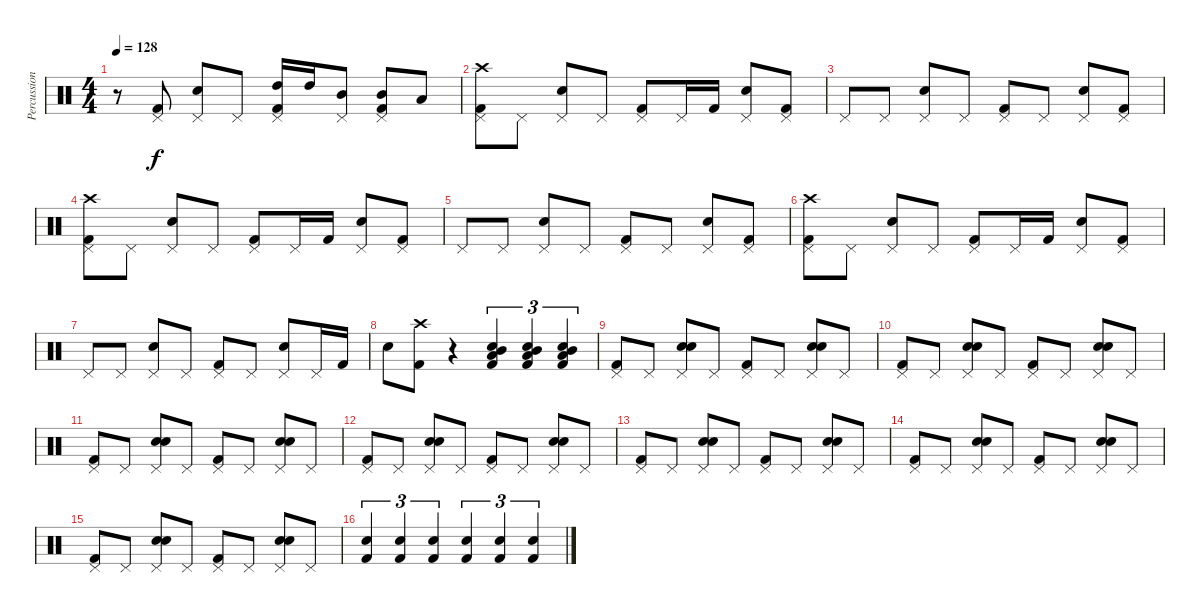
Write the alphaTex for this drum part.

\track ("Percussions" "Percussion") {instrument percussion}
\staff {score}
\articulation defaults
\ts (4 4)
\tempo 128
\clef neutral
\ks c
r.8{dy f} ("Pedal Hi-Hat (hit)" "Kick (hit) 2").8 ("Pedal Hi-Hat (hit)" "Snare (hit) 2").8 "Pedal Hi-Hat (hit)".8 ("Pedal Hi-Hat (hit)" "High Tom (hit)" "Kick (hit) 2").16 "High Tom (hit)".16 ("Pedal Hi-Hat (hit)" "Mid Tom (hit)").8 ("Pedal Hi-Hat (hit)" "Mid Tom (hit)" "Kick (hit) 2").8 "Low Tom (hit)".8 |
("Crash high (hit)" "Pedal Hi-Hat (hit)" "Kick (hit) 2").8 "Pedal Hi-Hat (hit)".8 ("Pedal Hi-Hat (hit)" "Snare (hit) 2").8 "Pedal Hi-Hat (hit)".8 ("Pedal Hi-Hat (hit)" "Kick (hit) 2").8 "Pedal Hi-Hat (hit)".16 "Kick (hit) 2".16 ("Pedal Hi-Hat (hit)" "Snare (hit) 2").8 ("Pedal Hi-Hat (hit)" "Kick (hit) 2").8 |
"Pedal Hi-Hat (hit)".8 "Pedal Hi-Hat (hit)".8 ("Pedal Hi-Hat (hit)" "Snare (hit) 2").8 "Pedal Hi-Hat (hit)".8 ("Pedal Hi-Hat (hit)" "Kick (hit) 2").8 "Pedal Hi-Hat (hit)".8 ("Pedal Hi-Hat (hit)" "Snare (hit) 2").8 ("Pedal Hi-Hat (hit)" "Kick (hit) 2").8 |
("Crash high (hit)" "Pedal Hi-Hat (hit)" "Kick (hit) 2").8 "Pedal Hi-Hat (hit)".8 ("Pedal Hi-Hat (hit)" "Snare (hit) 2").8 "Pedal Hi-Hat (hit)".8 ("Pedal Hi-Hat (hit)" "Kick (hit) 2").8 "Pedal Hi-Hat (hit)".16 "Kick (hit) 2".16 ("Pedal Hi-Hat (hit)" "Snare (hit) 2").8 ("Pedal Hi-Hat (hit)" "Kick (hit) 2").8 |
"Pedal Hi-Hat (hit)".8 "Pedal Hi-Hat (hit)".8 ("Pedal Hi-Hat (hit)" "Snare (hit) 2").8 "Pedal Hi-Hat (hit)".8 ("Pedal Hi-Hat (hit)" "Kick (hit) 2").8 "Pedal Hi-Hat (hit)".8 ("Pedal Hi-Hat (hit)" "Snare (hit) 2").8 ("Pedal Hi-Hat (hit)" "Kick (hit) 2").8 |
("Crash high (hit)" "Pedal Hi-Hat (hit)" "Kick (hit) 2").8 "Pedal Hi-Hat (hit)".8 ("Pedal Hi-Hat (hit)" "Snare (hit) 2").8 "Pedal Hi-Hat (hit)".8 ("Pedal Hi-Hat (hit)" "Kick (hit) 2").8 "Pedal Hi-Hat (hit)".16 "Kick (hit) 2".16 ("Pedal Hi-Hat (hit)" "Snare (hit) 2").8 ("Pedal Hi-Hat (hit)" "Kick (hit) 2").8 |
"Pedal Hi-Hat (hit)".8 "Pedal Hi-Hat (hit)".8 ("Pedal Hi-Hat (hit)" "Snare (hit) 2").8 "Pedal Hi-Hat (hit)".8 ("Pedal Hi-Hat (hit)" "Kick (hit) 2").8 "Pedal Hi-Hat (hit)".8 ("Pedal Hi-Hat (hit)" "Snare (hit) 2").8 "Pedal Hi-Hat (hit)".16 "Kick (hit) 2".16 |
"Snare (hit) 2".8 ("Crash high (hit)" "Kick (hit) 2").8 r.4 ("Mid Tom (hit)" "Low Tom (hit)" "Snare (hit) 2" "Kick (hit) 2").4{tu (3 2)} ("Mid Tom (hit)" "Low Tom (hit)" "Snare (hit) 2" "Kick (hit) 2").4{tu (3 2)} ("Mid Tom (hit)" "Low Tom (hit)" "Snare (hit) 2" "Kick (hit) 2").4{tu (3 2)} |
("Pedal Hi-Hat (hit)" "Kick (hit) 2").8 "Pedal Hi-Hat (hit)".8 ("Pedal Hi-Hat (hit)" "Snare (hit) 2" "Hand Clap (hit)").8 "Pedal Hi-Hat (hit)".8 ("Pedal Hi-Hat (hit)" "Kick (hit) 2").8 "Pedal Hi-Hat (hit)".8 ("Pedal Hi-Hat (hit)" "Snare (hit) 2" "Hand Clap (hit)").8 "Pedal Hi-Hat (hit)".8 |
("Pedal Hi-Hat (hit)" "Kick (hit) 2").8 "Pedal Hi-Hat (hit)".8 ("Pedal Hi-Hat (hit)" "Snare (hit) 2" "Hand Clap (hit)").8 "Pedal Hi-Hat (hit)".8 ("Pedal Hi-Hat (hit)" "Kick (hit) 2").8 "Pedal Hi-Hat (hit)".8 ("Pedal Hi-Hat (hit)" "Snare (hit) 2" "Hand Clap (hit)").8 "Pedal Hi-Hat (hit)".8 |
("Pedal Hi-Hat (hit)" "Kick (hit) 2").8 "Pedal Hi-Hat (hit)".8 ("Pedal Hi-Hat (hit)" "Snare (hit) 2" "Hand Clap (hit)").8 "Pedal Hi-Hat (hit)".8 ("Pedal Hi-Hat (hit)" "Kick (hit) 2").8 "Pedal Hi-Hat (hit)".8 ("Pedal Hi-Hat (hit)" "Snare (hit) 2" "Hand Clap (hit)").8 "Pedal Hi-Hat (hit)".8 |
("Pedal Hi-Hat (hit)" "Kick (hit) 2").8 "Pedal Hi-Hat (hit)".8 ("Pedal Hi-Hat (hit)" "Snare (hit) 2" "Hand Clap (hit)").8 "Pedal Hi-Hat (hit)".8 ("Pedal Hi-Hat (hit)" "Kick (hit) 2").8 "Pedal Hi-Hat (hit)".8 ("Pedal Hi-Hat (hit)" "Snare (hit) 2" "Hand Clap (hit)").8 "Pedal Hi-Hat (hit)".8 |
("Pedal Hi-Hat (hit)" "Kick (hit) 2").8 "Pedal Hi-Hat (hit)".8 ("Pedal Hi-Hat (hit)" "Snare (hit) 2" "Hand Clap (hit)").8 "Pedal Hi-Hat (hit)".8 ("Pedal Hi-Hat (hit)" "Kick (hit) 2").8 "Pedal Hi-Hat (hit)".8 ("Pedal Hi-Hat (hit)" "Snare (hit) 2" "Hand Clap (hit)").8 "Pedal Hi-Hat (hit)".8 |
("Pedal Hi-Hat (hit)" "Kick (hit) 2").8 "Pedal Hi-Hat (hit)".8 ("Pedal Hi-Hat (hit)" "Snare (hit) 2" "Hand Clap (hit)").8 "Pedal Hi-Hat (hit)".8 ("Pedal Hi-Hat (hit)" "Kick (hit) 2").8 "Pedal Hi-Hat (hit)".8 ("Pedal Hi-Hat (hit)" "Snare (hit) 2" "Hand Clap (hit)").8 "Pedal Hi-Hat (hit)".8 |
("Pedal Hi-Hat (hit)" "Kick (hit) 2").8 "Pedal Hi-Hat (hit)".8 ("Pedal Hi-Hat (hit)" "Snare (hit) 2" "Hand Clap (hit)").8 "Pedal Hi-Hat (hit)".8 ("Pedal Hi-Hat (hit)" "Kick (hit) 2").8 "Pedal Hi-Hat (hit)".8 ("Pedal Hi-Hat (hit)" "Snare (hit) 2" "Hand Clap (hit)").8 "Pedal Hi-Hat (hit)".8 |
("Snare (hit) 2" "Kick (hit) 2").4{tu (3 2)} ("Snare (hit) 2" "Kick (hit) 2").4{tu (3 2)} ("Snare (hit) 2" "Kick (hit) 2").4{tu (3 2)} ("Snare (hit) 2" "Kick (hit) 2").4{tu (3 2)} ("Snare (hit) 2" "Kick (hit) 2").4{tu (3 2)} ("Snare (hit) 2" "Kick (hit) 2").4{tu (3 2)}
